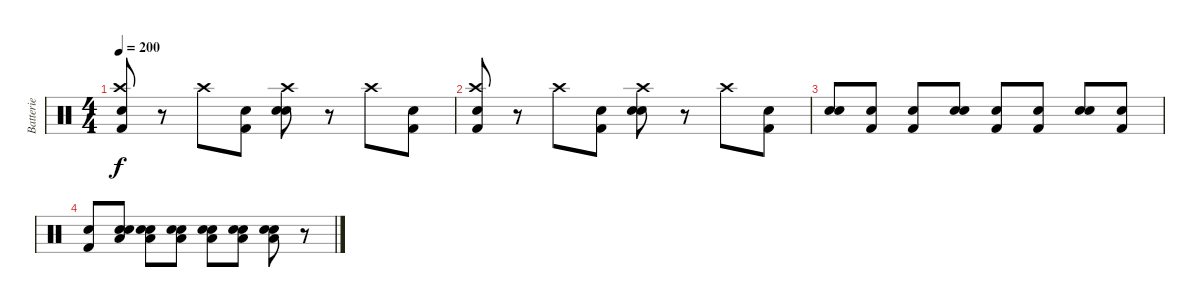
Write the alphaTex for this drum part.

\track ("Batterie" "Batterie") {instrument percussion}
\staff {score}
\articulation defaults
\ts (4 4)
\tempo 200
\clef neutral
\ks c
("Snare (hit)" "Crash high (hit)" "Kick (hit) 2").8{dy f} r.8 "Crash high (hit)".8 ("Snare (hit)" "Kick (hit) 2").8 ("Snare (hit)" "Crash high (hit)" "Electric Snare (hit)").8 r.8 "Crash high (hit)".8 ("Snare (hit)" "Kick (hit) 2").8 |
("Snare (hit)" "Crash high (hit)" "Kick (hit) 2").8 r.8 "Crash high (hit)".8 ("Snare (hit)" "Kick (hit) 2").8 ("Snare (hit)" "Crash high (hit)" "Electric Snare (hit)").8 r.8 "Crash high (hit)".8 ("Snare (hit)" "Kick (hit) 2").8 |
("Snare (hit)" "Electric Snare (hit)").8 ("Snare (hit)" "Kick (hit) 2").8 ("Snare (hit)" "Kick (hit) 2").8 ("Snare (hit)" "Electric Snare (hit)").8 ("Snare (hit)" "Kick (hit) 2").8 ("Snare (hit)" "Kick (hit) 2").8 ("Snare (hit)" "Electric Snare (hit)").8 ("Snare (hit)" "Kick (hit) 2").8 |
("Snare (hit)" "Kick (hit) 2").8 ("Snare (hit)" "Low Floor Tom (hit)" "Electric Snare (hit)").8 ("Snare (hit)" "Low Floor Tom (hit)" "Electric Snare (hit)").8 ("Snare (hit)" "Low Floor Tom (hit)" "Electric Snare (hit)").8 ("Snare (hit)" "Low Floor Tom (hit)" "Electric Snare (hit)").8 ("Snare (hit)" "Low Floor Tom (hit)" "Electric Snare (hit)").8 ("Snare (hit)" "Low Floor Tom (hit)" "Electric Snare (hit)").8 r.8
